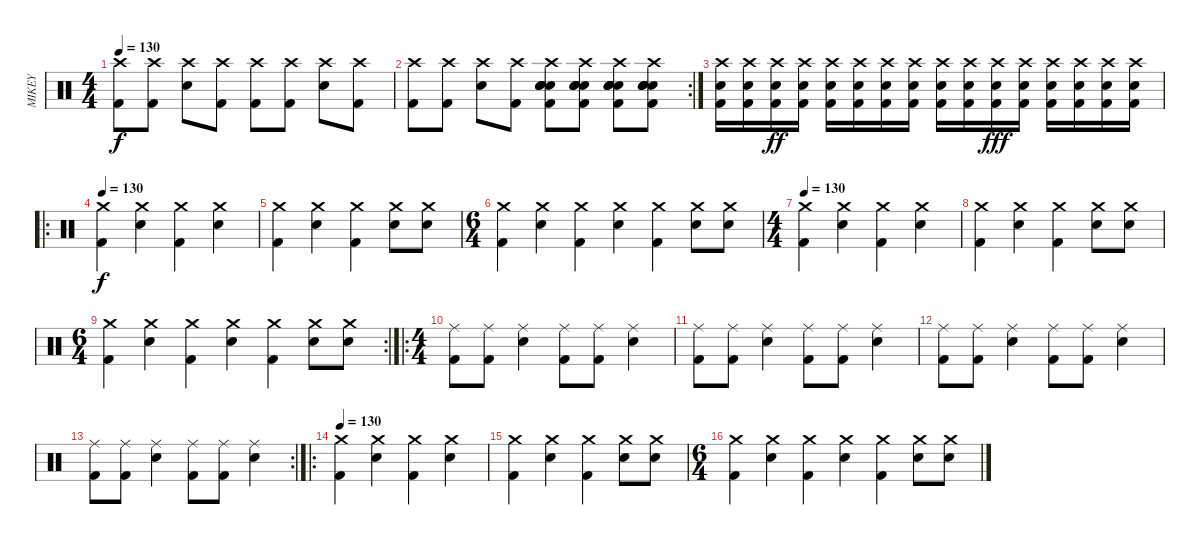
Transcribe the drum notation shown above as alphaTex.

\track ("MIKEY" "MIKEY") {instrument percussion}
\staff {score}
\articulation defaults
\ts (4 4)
\tempo 130
\clef neutral
\ks c
("Crash high (hit)" "Kick (hit) 2").8{dy f} ("Crash high (hit)" "Kick (hit) 2").8 ("Crash high (hit)" "Snare (hit) 2").8 ("Crash high (hit)" "Kick (hit) 2").8 ("Crash high (hit)" "Kick (hit) 2").8 ("Crash high (hit)" "Kick (hit) 2").8 ("Crash high (hit)" "Snare (hit) 2").8 ("Crash high (hit)" "Kick (hit) 2").8 |
\rc 2
("Crash high (hit)" "Kick (hit) 2").8 ("Crash high (hit)" "Kick (hit) 2").8 ("Crash high (hit)" "Snare (hit) 2").8 ("Crash high (hit)" "Kick (hit) 2").8 ("Electric Snare (hit)" "Snare (hit) 2" "Kick (hit) 2" "Electric Snare (hit)" "Crash high (hit)" "Electric Snare (hit)").8 ("Electric Snare (hit)" "Snare (hit) 2" "Kick (hit) 2" "Electric Snare (hit)" "Crash high (hit)" "Electric Snare (hit)").8 ("Electric Snare (hit)" "Snare (hit) 2" "Kick (hit) 2" "Electric Snare (hit)" "Crash high (hit)" "Electric Snare (hit)").8 ("Electric Snare (hit)" "Snare (hit) 2" "Kick (hit) 2" "Electric Snare (hit)" "Crash high (hit)" "Electric Snare (hit)").8 |
("Crash high (hit)" "Electric Snare (hit)" "Kick (hit) 2").16 ("Crash high (hit)" "Electric Snare (hit)" "Kick (hit) 2").16 ("Crash high (hit)" "Electric Snare (hit)" "Kick (hit) 2").16{dy ff} ("Crash high (hit)" "Electric Snare (hit)" "Kick (hit) 2").16 ("Crash high (hit)" "Electric Snare (hit)" "Kick (hit) 2").16 ("Crash high (hit)" "Electric Snare (hit)" "Kick (hit) 2").16 ("Crash high (hit)" "Electric Snare (hit)" "Kick (hit) 2").16 ("Crash high (hit)" "Electric Snare (hit)" "Kick (hit) 2").16 ("Crash high (hit)" "Electric Snare (hit)" "Kick (hit) 2").16 ("Crash high (hit)" "Electric Snare (hit)" "Kick (hit) 2").16 ("Crash high (hit)" "Electric Snare (hit)" "Kick (hit) 2").16{dy fff} ("Crash high (hit)" "Electric Snare (hit)" "Kick (hit) 2").16 ("Crash high (hit)" "Electric Snare (hit)" "Kick (hit) 2").16 ("Crash high (hit)" "Electric Snare (hit)" "Kick (hit) 2").16 ("Crash high (hit)" "Electric Snare (hit)" "Kick (hit) 2").16 ("Crash high (hit)" "Electric Snare (hit)" "Kick (hit) 2").16 |
\ro
\tempo 130
("Crash medium (hit)" "Kick (hit) 2").4{dy f} ("Crash medium (hit)" "Snare (hit) 2").4 ("Crash medium (hit)" "Kick (hit) 2").4 ("Crash medium (hit)" "Snare (hit) 2").4 |
("Crash medium (hit)" "Kick (hit) 2").4 ("Crash medium (hit)" "Snare (hit) 2").4 ("Crash medium (hit)" "Kick (hit) 2").4 ("Crash medium (hit)" "Snare (hit) 2").8 ("Crash medium (hit)" "Snare (hit) 2").8 |
\ts (6 4)
("Crash medium (hit)" "Kick (hit) 2").4 ("Crash medium (hit)" "Snare (hit) 2").4 ("Crash medium (hit)" "Kick (hit) 2").4 ("Crash medium (hit)" "Snare (hit) 2").4 ("Crash medium (hit)" "Kick (hit) 2").4 ("Crash medium (hit)" "Snare (hit) 2").8 ("Crash medium (hit)" "Snare (hit) 2").8 |
\ts (4 4)
\tempo 130
("Crash medium (hit)" "Kick (hit) 2").4 ("Crash medium (hit)" "Snare (hit) 2").4 ("Crash medium (hit)" "Kick (hit) 2").4 ("Crash medium (hit)" "Snare (hit) 2").4 |
("Crash medium (hit)" "Kick (hit) 2").4 ("Crash medium (hit)" "Snare (hit) 2").4 ("Crash medium (hit)" "Kick (hit) 2").4 ("Crash medium (hit)" "Snare (hit) 2").8 ("Crash medium (hit)" "Snare (hit) 2").8 |
\rc 2
\ts (6 4)
("Crash medium (hit)" "Kick (hit) 2").4 ("Crash medium (hit)" "Snare (hit) 2").4 ("Crash medium (hit)" "Kick (hit) 2").4 ("Crash medium (hit)" "Snare (hit) 2").4 ("Crash medium (hit)" "Kick (hit) 2").4 ("Crash medium (hit)" "Snare (hit) 2").8 ("Crash medium (hit)" "Snare (hit) 2").8 |
\ro
\ts (4 4)
("Ride (middle)" "Kick (hit) 2").8 ("Ride (middle)" "Kick (hit) 2").8 ("Ride (middle)" "Snare (hit) 2").4 ("Ride (middle)" "Kick (hit) 2").8 ("Ride (middle)" "Kick (hit) 2").8 ("Ride (middle)" "Snare (hit) 2").4 |
("Ride (middle)" "Kick (hit) 2").8 ("Ride (middle)" "Kick (hit) 2").8 ("Ride (middle)" "Snare (hit) 2").4 ("Ride (middle)" "Kick (hit) 2").8 ("Ride (middle)" "Kick (hit) 2").8 ("Ride (middle)" "Snare (hit) 2").4 |
("Ride (middle)" "Kick (hit) 2").8 ("Ride (middle)" "Kick (hit) 2").8 ("Ride (middle)" "Snare (hit) 2").4 ("Ride (middle)" "Kick (hit) 2").8 ("Ride (middle)" "Kick (hit) 2").8 ("Ride (middle)" "Snare (hit) 2").4 |
\rc 2
("Ride (middle)" "Kick (hit) 2").8 ("Ride (middle)" "Kick (hit) 2").8 ("Ride (middle)" "Snare (hit) 2").4 ("Ride (middle)" "Kick (hit) 2").8 ("Ride (middle)" "Kick (hit) 2").8 ("Ride (middle)" "Snare (hit) 2").4 |
\ro
\tempo 130
("Crash medium (hit)" "Kick (hit) 2").4 ("Crash medium (hit)" "Snare (hit) 2").4 ("Crash medium (hit)" "Kick (hit) 2").4 ("Crash medium (hit)" "Snare (hit) 2").4 |
("Crash medium (hit)" "Kick (hit) 2").4 ("Crash medium (hit)" "Snare (hit) 2").4 ("Crash medium (hit)" "Kick (hit) 2").4 ("Crash medium (hit)" "Snare (hit) 2").8 ("Crash medium (hit)" "Snare (hit) 2").8 |
\ts (6 4)
("Crash medium (hit)" "Kick (hit) 2").4 ("Crash medium (hit)" "Snare (hit) 2").4 ("Crash medium (hit)" "Kick (hit) 2").4 ("Crash medium (hit)" "Snare (hit) 2").4 ("Crash medium (hit)" "Kick (hit) 2").4 ("Crash medium (hit)" "Snare (hit) 2").8 ("Crash medium (hit)" "Snare (hit) 2").8
